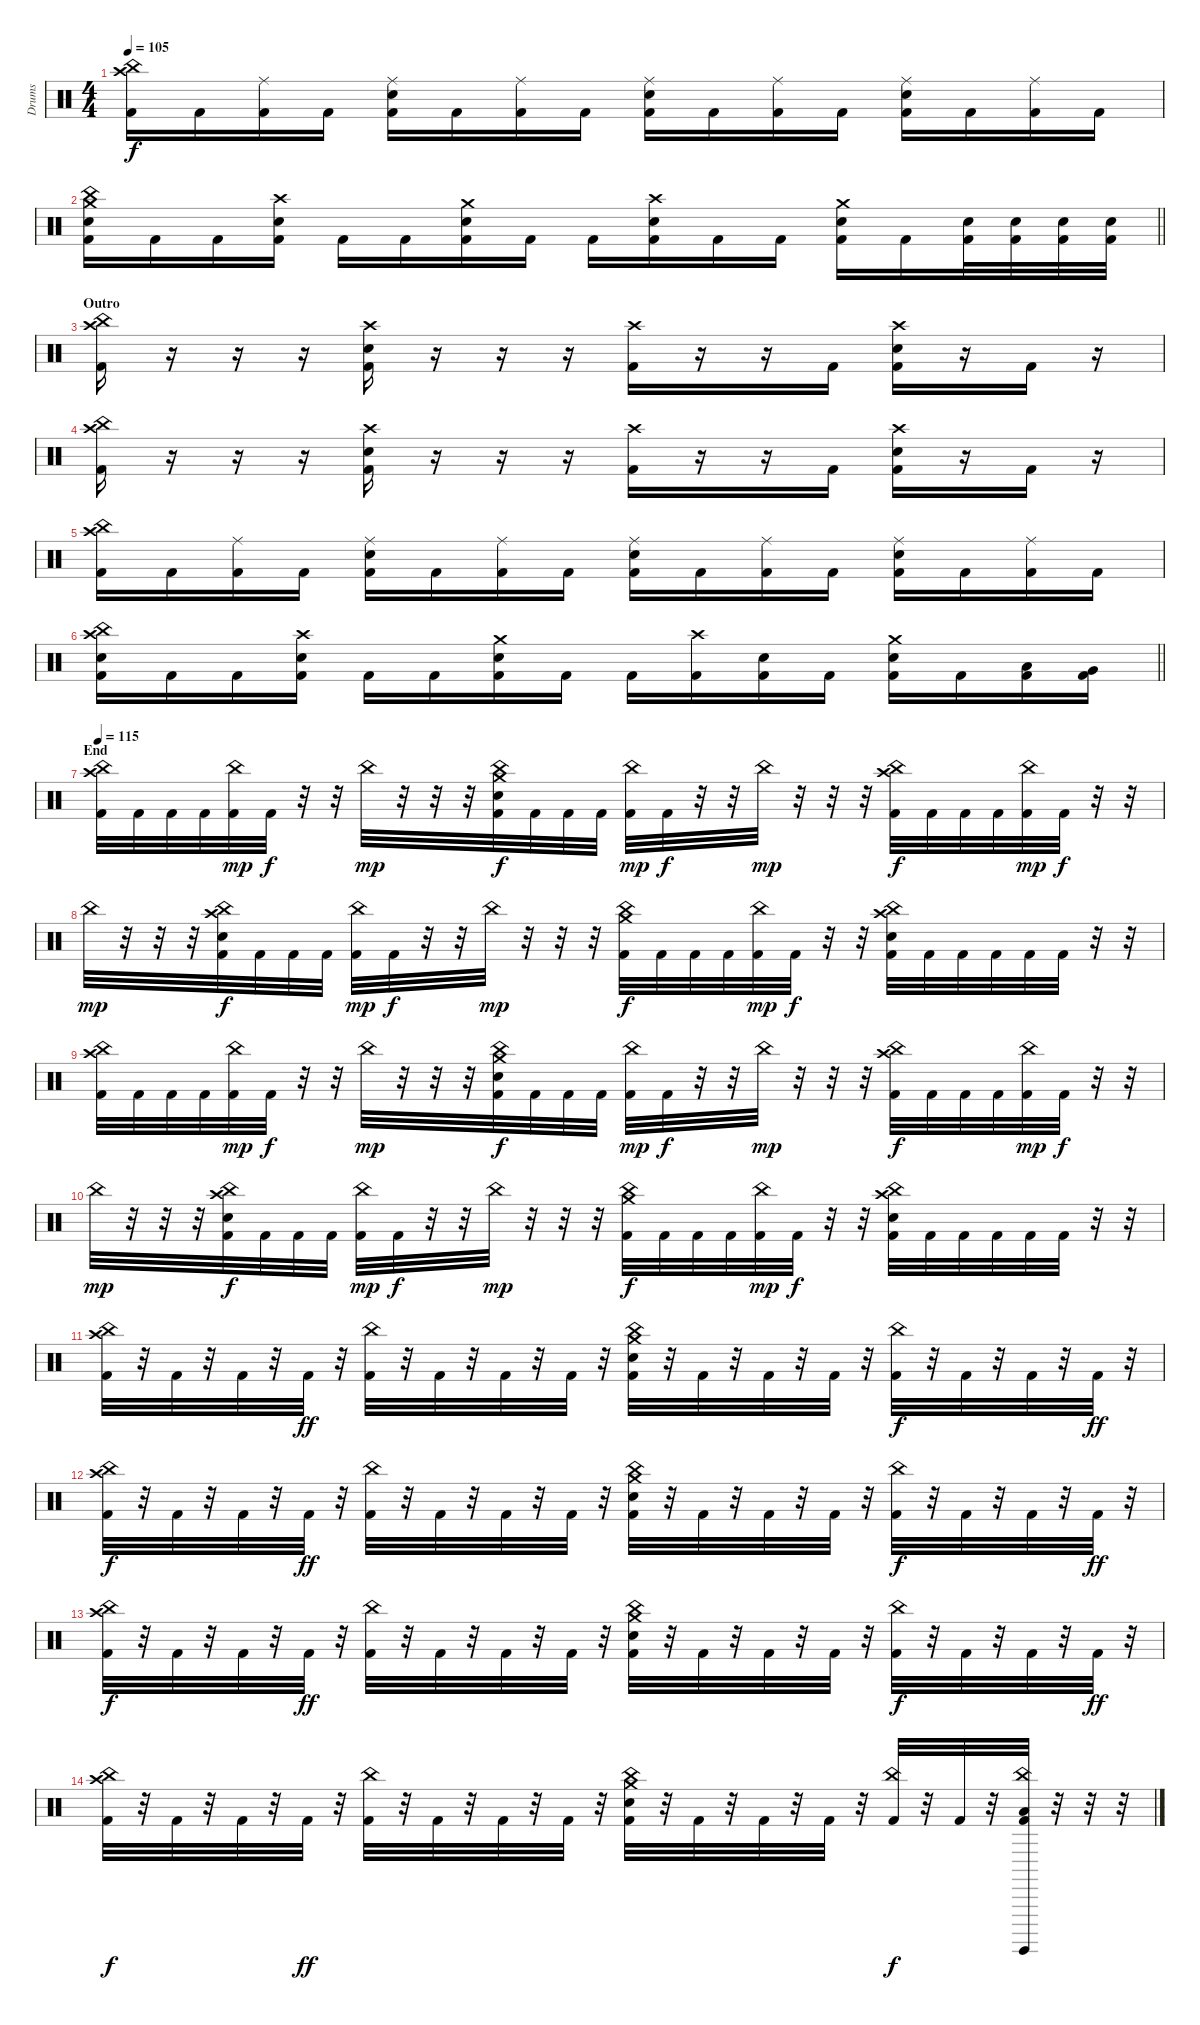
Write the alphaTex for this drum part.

\track ("Drums" "Drums") {instrument percussion}
\staff {score}
\articulation defaults
\ts (4 4)
\tempo 105
\clef neutral
\ks c
("China (hit)" "Crash high (hit)" "Kick (hit) 2").16{dy f} "Kick (hit) 2".16 ("Ride (middle)" "Kick (hit) 2").16 "Kick (hit) 2".16 ("Ride (middle)" "Electric Snare (hit)" "Kick (hit) 2").16 "Kick (hit) 2".16 ("Ride (middle)" "Kick (hit) 2").16 "Kick (hit) 2".16 ("Ride (middle)" "Electric Snare (hit)" "Kick (hit) 2").16 "Kick (hit) 2".16 ("Ride (middle)" "Kick (hit) 2").16 "Kick (hit) 2".16 ("Ride (middle)" "Electric Snare (hit)" "Kick (hit) 2").16 "Kick (hit) 2".16 ("Ride (middle)" "Kick (hit) 2").16 "Kick (hit) 2".16 |
\barLineRight lightlight
("China (hit)" "Crash medium (hit)" "Electric Snare (hit)" "Kick (hit) 2").16 "Kick (hit) 2".16 "Kick (hit) 2".16 ("Crash high (hit)" "Electric Snare (hit)" "Kick (hit) 2").16 "Kick (hit) 2".16 "Kick (hit) 2".16 ("Crash medium (hit)" "Electric Snare (hit)" "Kick (hit) 2").16 "Kick (hit) 2".16 "Kick (hit) 2".16 ("Crash high (hit)" "Electric Snare (hit)" "Kick (hit) 2").16 "Kick (hit) 2".16 "Kick (hit) 2".16 ("Crash medium (hit)" "Electric Snare (hit)" "Kick (hit) 2").16 "Kick (hit) 2".16 ("Electric Snare (hit)" "Kick (hit) 2").32 ("Electric Snare (hit)" "Kick (hit) 2").32 ("Electric Snare (hit)" "Kick (hit) 2").32 ("Electric Snare (hit)" "Kick (hit) 2").32 |
\section ("" "Outro")
("China (hit)" "Crash high (hit)" "Kick (hit) 2").16 r.16 r.16 r.16 ("Crash high (hit)" "Electric Snare (hit)" "Kick (hit) 2").16 r.16 r.16 r.16 ("Crash high (hit)" "Kick (hit) 2").16 r.16 r.16 "Kick (hit) 2".16 ("Crash high (hit)" "Electric Snare (hit)" "Kick (hit) 2").16 r.16 "Kick (hit) 2".16 r.16 |
("China (hit)" "Crash high (hit)" "Kick (hit) 2").16 r.16 r.16 r.16 ("Crash high (hit)" "Electric Snare (hit)" "Kick (hit) 2").16 r.16 r.16 r.16 ("Crash high (hit)" "Kick (hit) 2").16 r.16 r.16 "Kick (hit) 2".16 ("Crash high (hit)" "Electric Snare (hit)" "Kick (hit) 2").16 r.16 "Kick (hit) 2".16 r.16 |
("China (hit)" "Crash high (hit)" "Kick (hit) 2").16 "Kick (hit) 2".16 ("Ride (middle)" "Kick (hit) 2").16 "Kick (hit) 2".16 ("Ride (middle)" "Electric Snare (hit)" "Kick (hit) 2").16 "Kick (hit) 2".16 ("Ride (middle)" "Kick (hit) 2").16 "Kick (hit) 2".16 ("Ride (middle)" "Electric Snare (hit)" "Kick (hit) 2").16 "Kick (hit) 2".16 ("Ride (middle)" "Kick (hit) 2").16 "Kick (hit) 2".16 ("Ride (middle)" "Electric Snare (hit)" "Kick (hit) 2").16 "Kick (hit) 2".16 ("Ride (middle)" "Kick (hit) 2").16 "Kick (hit) 2".16 |
\barLineRight lightlight
("China (hit)" "Crash high (hit)" "Electric Snare (hit)" "Kick (hit) 2").16 "Kick (hit) 2".16 "Kick (hit) 2".16 ("Crash high (hit)" "Electric Snare (hit)" "Kick (hit) 2").16 "Kick (hit) 2".16 "Kick (hit) 2".16 ("Crash medium (hit)" "Electric Snare (hit)" "Kick (hit) 2").16 "Kick (hit) 2".16 "Kick (hit) 2".16 ("Crash high (hit)" "Kick (hit) 2").16 ("Electric Snare (hit)" "Kick (hit) 2").16 "Kick (hit) 2".16 ("Crash medium (hit)" "Electric Snare (hit)" "Kick (hit) 2").16 "Kick (hit) 2".16 ("Low Tom (hit)" "Kick (hit) 2").16 ("Very Low Tom (hit)" "Kick (hit) 2").16 |
\section ("" "End")
\tempo 115
("China (hit)" "Crash high (hit)" "Kick (hit) 2").32 "Kick (hit) 2".32 "Kick (hit) 2".32 "Kick (hit) 2".32 ("China (hit)" "Kick (hit) 2").32{dy mp} "Kick (hit) 2".32{dy f} r.32 r.32 "China (hit)".32{dy mp} r.32 r.32 r.32 ("China (hit)" "Crash medium (hit)" "Electric Snare (hit)" "Kick (hit) 2").32{dy f} "Kick (hit) 2".32 "Kick (hit) 2".32 "Kick (hit) 2".32 ("China (hit)" "Kick (hit) 2").32{dy mp} "Kick (hit) 2".32{dy f} r.32 r.32 "China (hit)".32{dy mp} r.32 r.32 r.32 ("China (hit)" "Crash high (hit)" "Kick (hit) 2").32{dy f} "Kick (hit) 2".32 "Kick (hit) 2".32 "Kick (hit) 2".32 ("China (hit)" "Kick (hit) 2").32{dy mp} "Kick (hit) 2".32{dy f} r.32 r.32 |
"China (hit)".32{dy mp} r.32 r.32 r.32 ("China (hit)" "Crash high (hit)" "Electric Snare (hit)" "Kick (hit) 2").32{dy f} "Kick (hit) 2".32 "Kick (hit) 2".32 "Kick (hit) 2".32 ("China (hit)" "Kick (hit) 2").32{dy mp} "Kick (hit) 2".32{dy f} r.32 r.32 "China (hit)".32{dy mp} r.32 r.32 r.32 ("China (hit)" "Crash medium (hit)" "Kick (hit) 2").32{dy f} "Kick (hit) 2".32 "Kick (hit) 2".32 "Kick (hit) 2".32 ("China (hit)" "Kick (hit) 2").32{dy mp} "Kick (hit) 2".32{dy f} r.32 r.32 ("China (hit)" "Crash high (hit)" "Electric Snare (hit)" "Kick (hit) 2").32 "Kick (hit) 2".32 "Kick (hit) 2".32 "Kick (hit) 2".32 "Kick (hit) 2".32 "Kick (hit) 2".32 r.32 r.32 |
("China (hit)" "Crash high (hit)" "Kick (hit) 2").32 "Kick (hit) 2".32 "Kick (hit) 2".32 "Kick (hit) 2".32 ("China (hit)" "Kick (hit) 2").32{dy mp} "Kick (hit) 2".32{dy f} r.32 r.32 "China (hit)".32{dy mp} r.32 r.32 r.32 ("China (hit)" "Crash medium (hit)" "Electric Snare (hit)" "Kick (hit) 2").32{dy f} "Kick (hit) 2".32 "Kick (hit) 2".32 "Kick (hit) 2".32 ("China (hit)" "Kick (hit) 2").32{dy mp} "Kick (hit) 2".32{dy f} r.32 r.32 "China (hit)".32{dy mp} r.32 r.32 r.32 ("China (hit)" "Crash high (hit)" "Kick (hit) 2").32{dy f} "Kick (hit) 2".32 "Kick (hit) 2".32 "Kick (hit) 2".32 ("China (hit)" "Kick (hit) 2").32{dy mp} "Kick (hit) 2".32{dy f} r.32 r.32 |
"China (hit)".32{dy mp} r.32 r.32 r.32 ("China (hit)" "Crash high (hit)" "Electric Snare (hit)" "Kick (hit) 2").32{dy f} "Kick (hit) 2".32 "Kick (hit) 2".32 "Kick (hit) 2".32 ("China (hit)" "Kick (hit) 2").32{dy mp} "Kick (hit) 2".32{dy f} r.32 r.32 "China (hit)".32{dy mp} r.32 r.32 r.32 ("China (hit)" "Crash medium (hit)" "Kick (hit) 2").32{dy f} "Kick (hit) 2".32 "Kick (hit) 2".32 "Kick (hit) 2".32 ("China (hit)" "Kick (hit) 2").32{dy mp} "Kick (hit) 2".32{dy f} r.32 r.32 ("China (hit)" "Crash high (hit)" "Electric Snare (hit)" "Kick (hit) 2").32 "Kick (hit) 2".32 "Kick (hit) 2".32 "Kick (hit) 2".32 "Kick (hit) 2".32 "Kick (hit) 2".32 r.32 r.32 |
("China (hit)" "Crash high (hit)" "Kick (hit) 2").32 r.32 "Kick (hit) 2".32 r.32 "Kick (hit) 2".32 r.32 "Kick (hit) 2".32{dy ff} r.32 ("China (hit)" "Kick (hit) 2").32 r.32 "Kick (hit) 2".32 r.32 "Kick (hit) 2".32 r.32 "Kick (hit) 2".32 r.32 ("China (hit)" "Crash medium (hit)" "Electric Snare (hit)" "Kick (hit) 2").32 r.32 "Kick (hit) 2".32 r.32 "Kick (hit) 2".32 r.32 "Kick (hit) 2".32 r.32 ("China (hit)" "Kick (hit) 2").32{dy f} r.32 "Kick (hit) 2".32 r.32 "Kick (hit) 2".32 r.32 "Kick (hit) 2".32{dy ff} r.32 |
("China (hit)" "Crash high (hit)" "Kick (hit) 2").32{dy f} r.32 "Kick (hit) 2".32 r.32 "Kick (hit) 2".32 r.32 "Kick (hit) 2".32{dy ff} r.32 ("China (hit)" "Kick (hit) 2").32 r.32 "Kick (hit) 2".32 r.32 "Kick (hit) 2".32 r.32 "Kick (hit) 2".32 r.32 ("China (hit)" "Crash medium (hit)" "Electric Snare (hit)" "Kick (hit) 2").32 r.32 "Kick (hit) 2".32 r.32 "Kick (hit) 2".32 r.32 "Kick (hit) 2".32 r.32 ("China (hit)" "Kick (hit) 2").32{dy f} r.32 "Kick (hit) 2".32 r.32 "Kick (hit) 2".32 r.32 "Kick (hit) 2".32{dy ff} r.32 |
("China (hit)" "Crash high (hit)" "Kick (hit) 2").32{dy f} r.32 "Kick (hit) 2".32 r.32 "Kick (hit) 2".32 r.32 "Kick (hit) 2".32{dy ff} r.32 ("China (hit)" "Kick (hit) 2").32 r.32 "Kick (hit) 2".32 r.32 "Kick (hit) 2".32 r.32 "Kick (hit) 2".32 r.32 ("China (hit)" "Crash medium (hit)" "Electric Snare (hit)" "Kick (hit) 2").32 r.32 "Kick (hit) 2".32 r.32 "Kick (hit) 2".32 r.32 "Kick (hit) 2".32 r.32 ("China (hit)" "Kick (hit) 2").32{dy f} r.32 "Kick (hit) 2".32 r.32 "Kick (hit) 2".32 r.32 "Kick (hit) 2".32{dy ff} r.32 |
("China (hit)" "Crash high (hit)" "Kick (hit) 2").32{dy f} r.32 "Kick (hit) 2".32 r.32 "Kick (hit) 2".32 r.32 "Kick (hit) 2".32{dy ff} r.32 ("China (hit)" "Kick (hit) 2").32 r.32 "Kick (hit) 2".32 r.32 "Kick (hit) 2".32 r.32 "Kick (hit) 2".32 r.32 ("China (hit)" "Crash medium (hit)" "Electric Snare (hit)" "Kick (hit) 2").32 r.32 "Kick (hit) 2".32 r.32 "Kick (hit) 2".32 r.32 "Kick (hit) 2".32 r.32 ("China (hit)" "Kick (hit) 2").32{dy f} r.32 "Kick (hit) 2".32 r.32 ("China (hit)" "Low Floor Tom (hit)" "Surdo (hit)" "Kick (hit) 2").32 r.32 r.32 r.32
